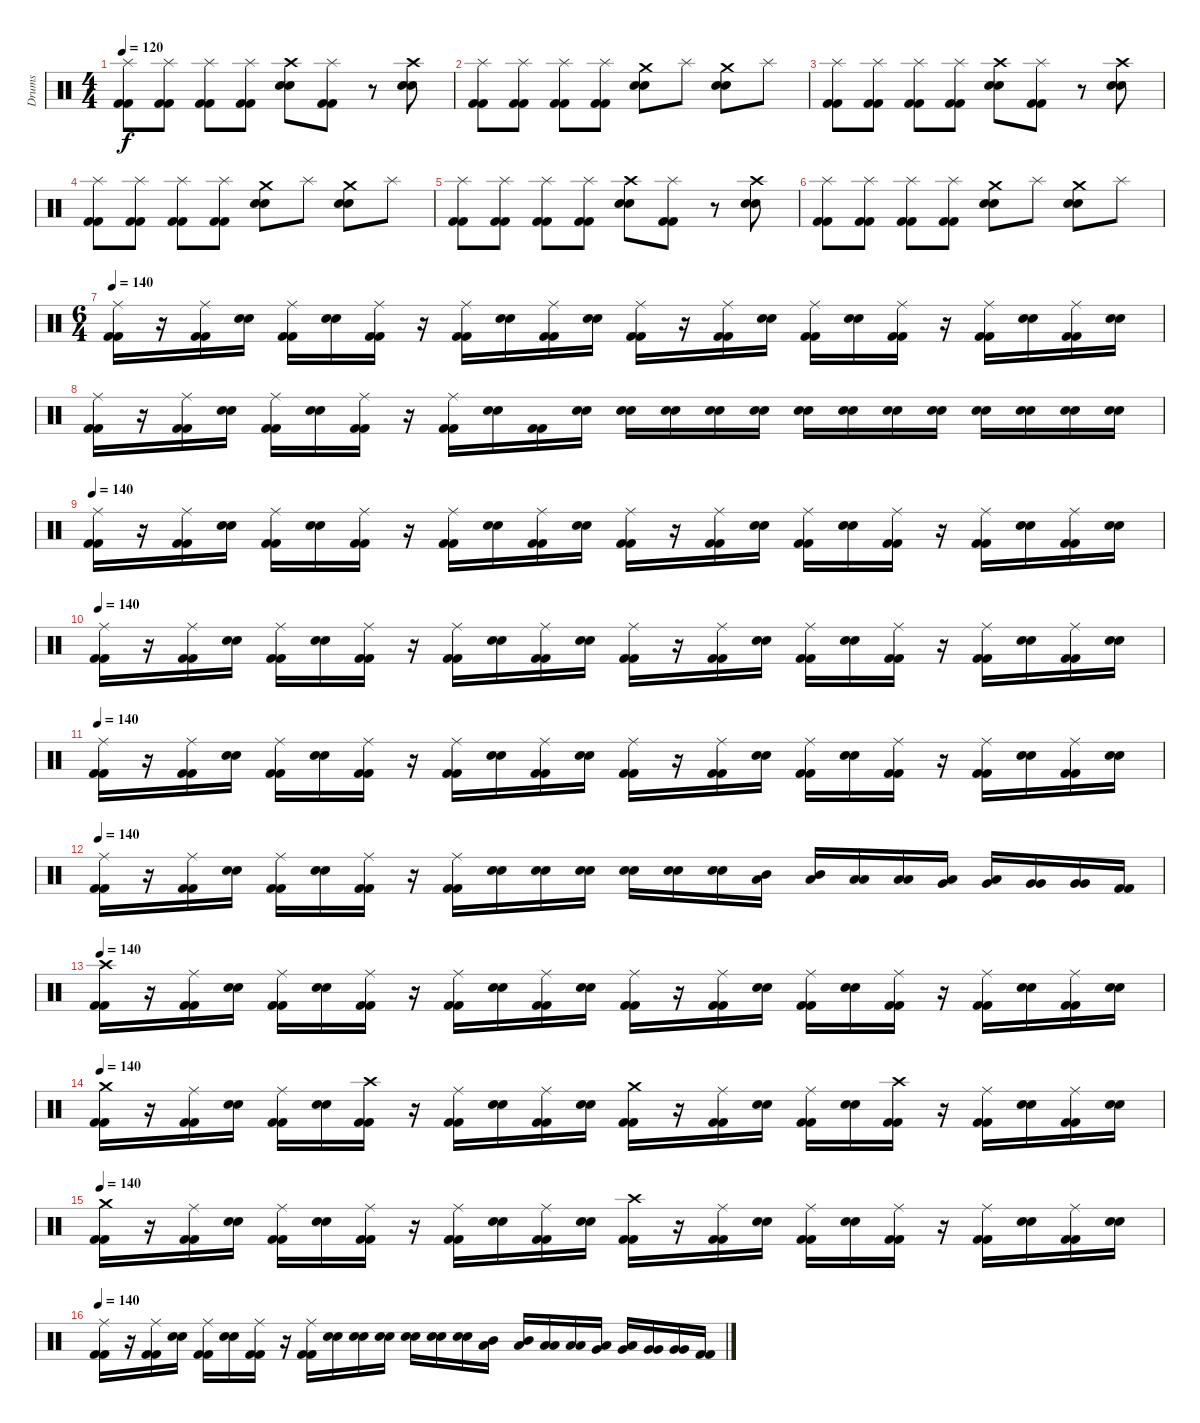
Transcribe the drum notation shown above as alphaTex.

\track ("Drums" "Drums") {instrument percussion}
\staff {score}
\articulation defaults
\ts (4 4)
\tempo 120
\clef neutral
\ks c
("Splash (hit)" "Kick (hit) 2" "Kick (hit) 2").8{dy f} ("Splash (hit)" "Kick (hit) 2" "Kick (hit) 2").8 ("Splash (hit)" "Kick (hit) 2" "Kick (hit) 2").8 ("Splash (hit)" "Kick (hit) 2" "Kick (hit) 2").8 ("Crash high (hit)" "Snare (hit) 2" "Snare (hit) 2").8 ("Splash (hit)" "Kick (hit) 2" "Kick (hit) 2").8 r.8 ("Crash high (hit)" "Snare (hit) 2" "Snare (hit) 2").8 |
("Splash (hit)" "Kick (hit) 2" "Kick (hit) 2").8 ("Splash (hit)" "Kick (hit) 2" "Kick (hit) 2").8 ("Splash (hit)" "Kick (hit) 2" "Kick (hit) 2").8 ("Splash (hit)" "Kick (hit) 2" "Kick (hit) 2").8 ("Crash medium (hit)" "Snare (hit) 2" "Snare (hit) 2").8 "Splash (hit)".8 ("Crash medium (hit)" "Snare (hit) 2" "Snare (hit) 2").8 "Splash (hit)".8 |
("Splash (hit)" "Kick (hit) 2" "Kick (hit) 2").8 ("Splash (hit)" "Kick (hit) 2" "Kick (hit) 2").8 ("Splash (hit)" "Kick (hit) 2" "Kick (hit) 2").8 ("Splash (hit)" "Kick (hit) 2" "Kick (hit) 2").8 ("Crash high (hit)" "Snare (hit) 2" "Snare (hit) 2").8 ("Splash (hit)" "Kick (hit) 2" "Kick (hit) 2").8 r.8 ("Crash high (hit)" "Snare (hit) 2" "Snare (hit) 2").8 |
("Splash (hit)" "Kick (hit) 2" "Kick (hit) 2").8 ("Splash (hit)" "Kick (hit) 2" "Kick (hit) 2").8 ("Splash (hit)" "Kick (hit) 2" "Kick (hit) 2").8 ("Splash (hit)" "Kick (hit) 2" "Kick (hit) 2").8 ("Crash medium (hit)" "Snare (hit) 2" "Snare (hit) 2").8 "Splash (hit)".8 ("Crash medium (hit)" "Snare (hit) 2" "Snare (hit) 2").8 "Splash (hit)".8 |
("Splash (hit)" "Kick (hit) 2" "Kick (hit) 2").8 ("Splash (hit)" "Kick (hit) 2" "Kick (hit) 2").8 ("Splash (hit)" "Kick (hit) 2" "Kick (hit) 2").8 ("Splash (hit)" "Kick (hit) 2" "Kick (hit) 2").8 ("Crash high (hit)" "Snare (hit) 2" "Snare (hit) 2").8 ("Splash (hit)" "Kick (hit) 2" "Kick (hit) 2").8 r.8 ("Crash high (hit)" "Snare (hit) 2" "Snare (hit) 2").8 |
("Splash (hit)" "Kick (hit) 2" "Kick (hit) 2").8 ("Splash (hit)" "Kick (hit) 2" "Kick (hit) 2").8 ("Splash (hit)" "Kick (hit) 2" "Kick (hit) 2").8 ("Splash (hit)" "Kick (hit) 2" "Kick (hit) 2").8 ("Crash medium (hit)" "Snare (hit) 2" "Snare (hit) 2").8 "Splash (hit)".8 ("Crash medium (hit)" "Snare (hit) 2" "Snare (hit) 2").8 "Splash (hit)".8 |
\ts (6 4)
\tempo 140
("Ride (middle)" "Kick (hit) 2" "Kick (hit) 2").16 r.16 ("Ride (middle)" "Kick (hit) 2" "Kick (hit) 2").16 ("Snare (hit) 2" "Snare (hit) 2").16 ("Ride (middle)" "Kick (hit) 2" "Kick (hit) 2").16 ("Snare (hit) 2" "Snare (hit) 2").16 ("Ride (middle)" "Kick (hit) 2" "Kick (hit) 2").16 r.16 ("Ride (middle)" "Kick (hit) 2" "Kick (hit) 2").16 ("Snare (hit) 2" "Snare (hit) 2").16 ("Ride (middle)" "Kick (hit) 2" "Kick (hit) 2").16 ("Snare (hit) 2" "Snare (hit) 2").16 ("Ride (middle)" "Kick (hit) 2" "Kick (hit) 2").16 r.16 ("Ride (middle)" "Kick (hit) 2" "Kick (hit) 2").16 ("Snare (hit) 2" "Snare (hit) 2").16 ("Ride (middle)" "Kick (hit) 2" "Kick (hit) 2").16 ("Snare (hit) 2" "Snare (hit) 2").16 ("Ride (middle)" "Kick (hit) 2" "Kick (hit) 2").16 r.16 ("Ride (middle)" "Kick (hit) 2" "Kick (hit) 2").16 ("Snare (hit) 2" "Snare (hit) 2").16 ("Ride (middle)" "Kick (hit) 2" "Kick (hit) 2").16 ("Snare (hit) 2" "Snare (hit) 2").16 |
("Ride (middle)" "Kick (hit) 2" "Kick (hit) 2").16 r.16 ("Ride (middle)" "Kick (hit) 2" "Kick (hit) 2").16 ("Snare (hit) 2" "Snare (hit) 2").16 ("Ride (middle)" "Kick (hit) 2" "Kick (hit) 2").16 ("Snare (hit) 2" "Snare (hit) 2").16 ("Ride (middle)" "Kick (hit) 2" "Kick (hit) 2").16 r.16 ("Ride (middle)" "Kick (hit) 2" "Kick (hit) 2").16 ("Snare (hit) 2" "Snare (hit) 2").16 ("Kick (hit) 2" "Kick (hit) 2").16 ("Snare (hit) 2" "Snare (hit) 2").16 ("Snare (hit) 2" "Snare (hit) 2").16 ("Snare (hit) 2" "Snare (hit) 2").16 ("Snare (hit) 2" "Snare (hit) 2").16 ("Snare (hit) 2" "Snare (hit) 2").16 ("Snare (hit) 2" "Snare (hit) 2").16 ("Snare (hit) 2" "Snare (hit) 2").16 ("Snare (hit) 2" "Snare (hit) 2").16 ("Snare (hit) 2" "Snare (hit) 2").16 ("Snare (hit) 2" "Snare (hit) 2").16 ("Snare (hit) 2" "Snare (hit) 2").16 ("Snare (hit) 2" "Snare (hit) 2").16 ("Snare (hit) 2" "Snare (hit) 2").16 |
\tempo 140
("Ride (middle)" "Kick (hit) 2" "Kick (hit) 2").16 r.16 ("Ride (middle)" "Kick (hit) 2" "Kick (hit) 2").16 ("Snare (hit) 2" "Snare (hit) 2").16 ("Ride (middle)" "Kick (hit) 2" "Kick (hit) 2").16 ("Snare (hit) 2" "Snare (hit) 2").16 ("Ride (middle)" "Kick (hit) 2" "Kick (hit) 2").16 r.16 ("Ride (middle)" "Kick (hit) 2" "Kick (hit) 2").16 ("Snare (hit) 2" "Snare (hit) 2").16 ("Ride (middle)" "Kick (hit) 2" "Kick (hit) 2").16 ("Snare (hit) 2" "Snare (hit) 2").16 ("Ride (middle)" "Kick (hit) 2" "Kick (hit) 2").16 r.16 ("Ride (middle)" "Kick (hit) 2" "Kick (hit) 2").16 ("Snare (hit) 2" "Snare (hit) 2").16 ("Ride (middle)" "Kick (hit) 2" "Kick (hit) 2").16 ("Snare (hit) 2" "Snare (hit) 2").16 ("Ride (middle)" "Kick (hit) 2" "Kick (hit) 2").16 r.16 ("Ride (middle)" "Kick (hit) 2" "Kick (hit) 2").16 ("Snare (hit) 2" "Snare (hit) 2").16 ("Ride (middle)" "Kick (hit) 2" "Kick (hit) 2").16 ("Snare (hit) 2" "Snare (hit) 2").16 |
\tempo 140
("Ride (middle)" "Kick (hit) 2" "Kick (hit) 2").16 r.16 ("Ride (middle)" "Kick (hit) 2" "Kick (hit) 2").16 ("Snare (hit) 2" "Snare (hit) 2").16 ("Ride (middle)" "Kick (hit) 2" "Kick (hit) 2").16 ("Snare (hit) 2" "Snare (hit) 2").16 ("Ride (middle)" "Kick (hit) 2" "Kick (hit) 2").16 r.16 ("Ride (middle)" "Kick (hit) 2" "Kick (hit) 2").16 ("Snare (hit) 2" "Snare (hit) 2").16 ("Ride (middle)" "Kick (hit) 2" "Kick (hit) 2").16 ("Snare (hit) 2" "Snare (hit) 2").16 ("Ride (middle)" "Kick (hit) 2" "Kick (hit) 2").16 r.16 ("Ride (middle)" "Kick (hit) 2" "Kick (hit) 2").16 ("Snare (hit) 2" "Snare (hit) 2").16 ("Ride (middle)" "Kick (hit) 2" "Kick (hit) 2").16 ("Snare (hit) 2" "Snare (hit) 2").16 ("Ride (middle)" "Kick (hit) 2" "Kick (hit) 2").16 r.16 ("Ride (middle)" "Kick (hit) 2" "Kick (hit) 2").16 ("Snare (hit) 2" "Snare (hit) 2").16 ("Ride (middle)" "Kick (hit) 2" "Kick (hit) 2").16 ("Snare (hit) 2" "Snare (hit) 2").16 |
\tempo 140
("Ride (middle)" "Kick (hit) 2" "Kick (hit) 2").16 r.16 ("Ride (middle)" "Kick (hit) 2" "Kick (hit) 2").16 ("Snare (hit) 2" "Snare (hit) 2").16 ("Ride (middle)" "Kick (hit) 2" "Kick (hit) 2").16 ("Snare (hit) 2" "Snare (hit) 2").16 ("Ride (middle)" "Kick (hit) 2" "Kick (hit) 2").16 r.16 ("Ride (middle)" "Kick (hit) 2" "Kick (hit) 2").16 ("Snare (hit) 2" "Snare (hit) 2").16 ("Ride (middle)" "Kick (hit) 2" "Kick (hit) 2").16 ("Snare (hit) 2" "Snare (hit) 2").16 ("Ride (middle)" "Kick (hit) 2" "Kick (hit) 2").16 r.16 ("Ride (middle)" "Kick (hit) 2" "Kick (hit) 2").16 ("Snare (hit) 2" "Snare (hit) 2").16 ("Ride (middle)" "Kick (hit) 2" "Kick (hit) 2").16 ("Snare (hit) 2" "Snare (hit) 2").16 ("Ride (middle)" "Kick (hit) 2" "Kick (hit) 2").16 r.16 ("Ride (middle)" "Kick (hit) 2" "Kick (hit) 2").16 ("Snare (hit) 2" "Snare (hit) 2").16 ("Ride (middle)" "Kick (hit) 2" "Kick (hit) 2").16 ("Snare (hit) 2" "Snare (hit) 2").16 |
\tempo 140
("Ride (middle)" "Kick (hit) 2" "Kick (hit) 2").16 r.16 ("Ride (middle)" "Kick (hit) 2" "Kick (hit) 2").16 ("Snare (hit) 2" "Snare (hit) 2").16 ("Ride (middle)" "Kick (hit) 2" "Kick (hit) 2").16 ("Snare (hit) 2" "Snare (hit) 2").16 ("Ride (middle)" "Kick (hit) 2" "Kick (hit) 2").16 r.16 ("Ride (middle)" "Kick (hit) 2" "Kick (hit) 2").16 ("Snare (hit) 2" "Snare (hit) 2").16 ("Snare (hit) 2" "Snare (hit) 2").16 ("Snare (hit) 2" "Snare (hit) 2").16 ("Snare (hit) 2" "Snare (hit) 2").16 ("Snare (hit) 2" "Snare (hit) 2").16 ("Snare (hit) 2" "Snare (hit) 2").16 ("Mid Tom (hit)" "Low Tom (hit)").16 ("Mid Tom (hit)" "Low Tom (hit)").16 ("Low Tom (hit)" "Low Tom (hit)").16 ("Low Tom (hit)" "Low Tom (hit)").16 ("Very Low Tom (hit)" "Low Tom (hit)").16 ("Very Low Tom (hit)" "Low Tom (hit)").16 ("Very Low Tom (hit)" "Very Low Tom (hit)").16 ("Very Low Tom (hit)" "Very Low Tom (hit)").16 ("Kick (hit) 2" "Kick (hit) 2").16 |
\tempo 140
("Crash high (hit)" "Kick (hit) 2" "Kick (hit) 2").16 r.16 ("Ride (middle)" "Kick (hit) 2" "Kick (hit) 2").16 ("Snare (hit) 2" "Snare (hit) 2").16 ("Ride (middle)" "Kick (hit) 2" "Kick (hit) 2").16 ("Snare (hit) 2" "Snare (hit) 2").16 ("Ride (middle)" "Kick (hit) 2" "Kick (hit) 2").16 r.16 ("Ride (middle)" "Kick (hit) 2" "Kick (hit) 2").16 ("Snare (hit) 2" "Snare (hit) 2").16 ("Ride (middle)" "Kick (hit) 2" "Kick (hit) 2").16 ("Snare (hit) 2" "Snare (hit) 2").16 ("Ride (middle)" "Kick (hit) 2" "Kick (hit) 2").16 r.16 ("Ride (middle)" "Kick (hit) 2" "Kick (hit) 2").16 ("Snare (hit) 2" "Snare (hit) 2").16 ("Ride (middle)" "Kick (hit) 2" "Kick (hit) 2").16 ("Snare (hit) 2" "Snare (hit) 2").16 ("Ride (middle)" "Kick (hit) 2" "Kick (hit) 2").16 r.16 ("Ride (middle)" "Kick (hit) 2" "Kick (hit) 2").16 ("Snare (hit) 2" "Snare (hit) 2").16 ("Ride (middle)" "Kick (hit) 2" "Kick (hit) 2").16 ("Snare (hit) 2" "Snare (hit) 2").16 |
\tempo 140
("Crash medium (hit)" "Kick (hit) 2" "Kick (hit) 2").16 r.16 ("Ride (middle)" "Kick (hit) 2" "Kick (hit) 2").16 ("Snare (hit) 2" "Snare (hit) 2").16 ("Ride (middle)" "Kick (hit) 2" "Kick (hit) 2").16 ("Snare (hit) 2" "Snare (hit) 2").16 ("Crash high (hit)" "Kick (hit) 2" "Kick (hit) 2").16 r.16 ("Ride (middle)" "Kick (hit) 2" "Kick (hit) 2").16 ("Snare (hit) 2" "Snare (hit) 2").16 ("Ride (middle)" "Kick (hit) 2" "Kick (hit) 2").16 ("Snare (hit) 2" "Snare (hit) 2").16 ("Crash medium (hit)" "Kick (hit) 2" "Kick (hit) 2").16 r.16 ("Ride (middle)" "Kick (hit) 2" "Kick (hit) 2").16 ("Snare (hit) 2" "Snare (hit) 2").16 ("Ride (middle)" "Kick (hit) 2" "Kick (hit) 2").16 ("Snare (hit) 2" "Snare (hit) 2").16 ("Crash high (hit)" "Kick (hit) 2" "Kick (hit) 2").16 r.16 ("Ride (middle)" "Kick (hit) 2" "Kick (hit) 2").16 ("Snare (hit) 2" "Snare (hit) 2").16 ("Ride (middle)" "Kick (hit) 2" "Kick (hit) 2").16 ("Snare (hit) 2" "Snare (hit) 2").16 |
\tempo 140
("Crash medium (hit)" "Kick (hit) 2" "Kick (hit) 2").16 r.16 ("Ride (middle)" "Kick (hit) 2" "Kick (hit) 2").16 ("Snare (hit) 2" "Snare (hit) 2").16 ("Ride (middle)" "Kick (hit) 2" "Kick (hit) 2").16 ("Snare (hit) 2" "Snare (hit) 2").16 ("Ride (middle)" "Kick (hit) 2" "Kick (hit) 2").16 r.16 ("Ride (middle)" "Kick (hit) 2" "Kick (hit) 2").16 ("Snare (hit) 2" "Snare (hit) 2").16 ("Ride (middle)" "Kick (hit) 2" "Kick (hit) 2").16 ("Snare (hit) 2" "Snare (hit) 2").16 ("Crash high (hit)" "Kick (hit) 2" "Kick (hit) 2").16 r.16 ("Ride (middle)" "Kick (hit) 2" "Kick (hit) 2").16 ("Snare (hit) 2" "Snare (hit) 2").16 ("Ride (middle)" "Kick (hit) 2" "Kick (hit) 2").16 ("Snare (hit) 2" "Snare (hit) 2").16 ("Ride (middle)" "Kick (hit) 2" "Kick (hit) 2").16 r.16 ("Ride (middle)" "Kick (hit) 2" "Kick (hit) 2").16 ("Snare (hit) 2" "Snare (hit) 2").16 ("Ride (middle)" "Kick (hit) 2" "Kick (hit) 2").16 ("Snare (hit) 2" "Snare (hit) 2").16 |
\tempo 140
("Ride (middle)" "Kick (hit) 2" "Kick (hit) 2").16 r.16 ("Ride (middle)" "Kick (hit) 2" "Kick (hit) 2").16 ("Snare (hit) 2" "Snare (hit) 2").16 ("Ride (middle)" "Kick (hit) 2" "Kick (hit) 2").16 ("Snare (hit) 2" "Snare (hit) 2").16 ("Ride (middle)" "Kick (hit) 2" "Kick (hit) 2").16 r.16 ("Ride (middle)" "Kick (hit) 2" "Kick (hit) 2").16 ("Snare (hit) 2" "Snare (hit) 2").16 ("Snare (hit) 2" "Snare (hit) 2").16 ("Snare (hit) 2" "Snare (hit) 2").16 ("Snare (hit) 2" "Snare (hit) 2").16 ("Snare (hit) 2" "Snare (hit) 2").16 ("Snare (hit) 2" "Snare (hit) 2").16 ("Mid Tom (hit)" "Low Tom (hit)").16 ("Mid Tom (hit)" "Low Tom (hit)").16 ("Low Tom (hit)" "Low Tom (hit)").16 ("Low Tom (hit)" "Low Tom (hit)").16 ("Very Low Tom (hit)" "Low Tom (hit)").16 ("Very Low Tom (hit)" "Low Tom (hit)").16 ("Very Low Tom (hit)" "Very Low Tom (hit)").16 ("Very Low Tom (hit)" "Very Low Tom (hit)").16 ("Kick (hit) 2" "Kick (hit) 2").16
